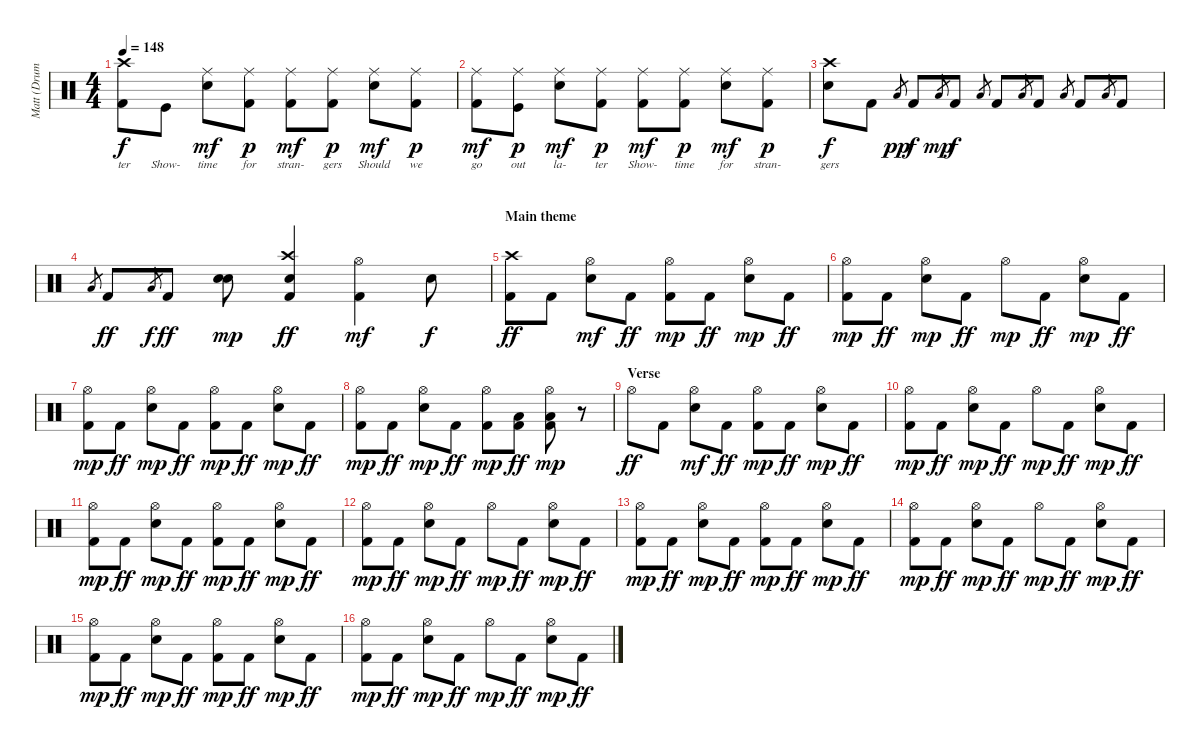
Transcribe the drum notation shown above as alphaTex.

\track ("Matt (Drums)" "Matt (Drum") {instrument percussion}
\staff {score}
\articulation defaults
\ts (4 4)
\tempo 148
\clef neutral
\ks c
("Kick (hit) 2" "Crash high (hit)").8{lyrics (0 "ter") lyrics (1 "") lyrics (2 "") lyrics (3 "") lyrics (4 "") dy f} "Kick (hit)".8{lyrics (0 "Show-") lyrics (1 "") lyrics (2 "") lyrics (3 "") lyrics (4 "")} ("Electric Snare (hit)" "Ride (middle)").8{lyrics (0 "time") lyrics (1 "") lyrics (2 "") lyrics (3 "") lyrics (4 "") dy mf} ("Kick (hit) 2" "Ride (middle)").8{lyrics (0 "for") lyrics (1 "") lyrics (2 "") lyrics (3 "") lyrics (4 "") dy p} ("Kick (hit) 2" "Ride (middle)").8{lyrics (0 "stran-") lyrics (1 "") lyrics (2 "") lyrics (3 "") lyrics (4 "") dy mf} ("Kick (hit) 2" "Ride (middle)").8{lyrics (0 "gers") lyrics (1 "") lyrics (2 "") lyrics (3 "") lyrics (4 "") dy p} ("Electric Snare (hit)" "Ride (middle)").8{lyrics (0 "Should") lyrics (1 "") lyrics (2 "") lyrics (3 "") lyrics (4 "") dy mf} ("Kick (hit) 2" "Ride (middle)").8{lyrics (0 "we") lyrics (1 "") lyrics (2 "") lyrics (3 "") lyrics (4 "") dy p} |
("Kick (hit) 2" "Ride (middle)").8{lyrics (0 "go") lyrics (1 "") lyrics (2 "") lyrics (3 "") lyrics (4 "") dy mf} ("Kick (hit)" "Ride (middle)").8{lyrics (0 "out") lyrics (1 "") lyrics (2 "") lyrics (3 "") lyrics (4 "") dy p} ("Electric Snare (hit)" "Ride (middle)").8{lyrics (0 "la-") lyrics (1 "") lyrics (2 "") lyrics (3 "") lyrics (4 "") dy mf} ("Kick (hit) 2" "Ride (middle)").8{lyrics (0 "ter") lyrics (1 "") lyrics (2 "") lyrics (3 "") lyrics (4 "") dy p} ("Kick (hit) 2" "Ride (middle)").8{lyrics (0 "Show-") lyrics (1 "") lyrics (2 "") lyrics (3 "") lyrics (4 "") dy mf} ("Kick (hit) 2" "Ride (middle)").8{lyrics (0 "time") lyrics (1 "") lyrics (2 "") lyrics (3 "") lyrics (4 "") dy p} ("Electric Snare (hit)" "Ride (middle)").8{lyrics (0 "for") lyrics (1 "") lyrics (2 "") lyrics (3 "") lyrics (4 "") dy mf} ("Kick (hit) 2" "Ride (middle)").8{lyrics (0 "stran-") lyrics (1 "") lyrics (2 "") lyrics (3 "") lyrics (4 "") dy p} |
("Electric Snare (hit)" "Crash high (hit)").8{lyrics (0 "gers") lyrics (1 "") lyrics (2 "") lyrics (3 "") lyrics (4 "") dy f} "Kick (hit) 2".8 "Low Tom (hit)".8{gr dy pp} "Kick (hit) 2".8{dy f} "Low Tom (hit)".8{gr dy mp} "Kick (hit) 2".8{dy f} "Low Tom (hit)".8{gr} "Kick (hit) 2".8 "Low Tom (hit)".8{gr} "Kick (hit) 2".8 "Low Tom (hit)".8{gr} "Kick (hit) 2".8 "Low Tom (hit)".8{gr} "Kick (hit) 2".8 |
"Low Tom (hit)".8{gr} "Kick (hit) 2".8{dy ff} "Low Tom (hit)".8{gr dy f} "Kick (hit) 2".8{dy ff} ("Electric Snare (hit)" "Hand Clap (hit)").8{dy mp} ("Snare (hit) 2" "Kick (hit) 2" "Crash high (hit)").4{dy ff} ("Kick (hit) 2" "Hi-Hat (open)").4{dy mf} "Electric Snare (hit)".8{dy f} |
\section ("" "Main theme")
("Kick (hit) 2" "Crash high (hit)").8{dy ff} "Kick (hit) 2".8 ("Electric Snare (hit)" "Hi-Hat (open)").8{dy mf} "Kick (hit) 2".8{dy ff} ("Kick (hit) 2" "Hi-Hat (open)").8{dy mp} "Kick (hit) 2".8{dy ff} ("Electric Snare (hit)" "Hi-Hat (open)").8{dy mp} "Kick (hit) 2".8{dy ff} |
("Kick (hit) 2" "Hi-Hat (open)").8{dy mp} "Kick (hit) 2".8{dy ff} ("Electric Snare (hit)" "Hi-Hat (open)").8{dy mp} "Kick (hit) 2".8{dy ff} "Hi-Hat (open)".8{dy mp} "Kick (hit) 2".8{dy ff} ("Electric Snare (hit)" "Hi-Hat (open)").8{dy mp} "Kick (hit) 2".8{dy ff} |
("Kick (hit) 2" "Hi-Hat (open)").8{dy mp} "Kick (hit) 2".8{dy ff} ("Electric Snare (hit)" "Hi-Hat (open)").8{dy mp} "Kick (hit) 2".8{dy ff} ("Kick (hit) 2" "Hi-Hat (open)").8{dy mp} "Kick (hit) 2".8{dy ff} ("Electric Snare (hit)" "Hi-Hat (open)").8{dy mp} "Kick (hit) 2".8{dy ff} |
("Kick (hit) 2" "Hi-Hat (open)").8{dy mp} "Kick (hit) 2".8{dy ff} ("Electric Snare (hit)" "Hi-Hat (open)").8{dy mp} "Kick (hit) 2".8{dy ff} ("Kick (hit) 2" "Hi-Hat (open)").8{dy mp} ("Low Tom (hit)" "Kick (hit) 2").8{dy ff} ("Low Tom (hit)" "Kick (hit) 2" "Hi-Hat (open)").8{dy mp} r.8 |
\section ("" "Verse")
"Hi-Hat (open)".8{dy ff} "Kick (hit) 2".8 ("Electric Snare (hit)" "Hi-Hat (open)").8{dy mf} "Kick (hit) 2".8{dy ff} ("Kick (hit) 2" "Hi-Hat (open)").8{dy mp} "Kick (hit) 2".8{dy ff} ("Electric Snare (hit)" "Hi-Hat (open)").8{dy mp} "Kick (hit) 2".8{dy ff} |
("Kick (hit) 2" "Hi-Hat (open)").8{dy mp} "Kick (hit) 2".8{dy ff} ("Electric Snare (hit)" "Hi-Hat (open)").8{dy mp} "Kick (hit) 2".8{dy ff} "Hi-Hat (open)".8{dy mp} "Kick (hit) 2".8{dy ff} ("Electric Snare (hit)" "Hi-Hat (open)").8{dy mp} "Kick (hit) 2".8{dy ff} |
("Kick (hit) 2" "Hi-Hat (open)").8{dy mp} "Kick (hit) 2".8{dy ff} ("Electric Snare (hit)" "Hi-Hat (open)").8{dy mp} "Kick (hit) 2".8{dy ff} ("Kick (hit) 2" "Hi-Hat (open)").8{dy mp} "Kick (hit) 2".8{dy ff} ("Electric Snare (hit)" "Hi-Hat (open)").8{dy mp} "Kick (hit) 2".8{dy ff} |
("Kick (hit) 2" "Hi-Hat (open)").8{dy mp} "Kick (hit) 2".8{dy ff} ("Electric Snare (hit)" "Hi-Hat (open)").8{dy mp} "Kick (hit) 2".8{dy ff} "Hi-Hat (open)".8{dy mp} "Kick (hit) 2".8{dy ff} ("Electric Snare (hit)" "Hi-Hat (open)").8{dy mp} "Kick (hit) 2".8{dy ff} |
("Kick (hit) 2" "Hi-Hat (open)").8{dy mp} "Kick (hit) 2".8{dy ff} ("Electric Snare (hit)" "Hi-Hat (open)").8{dy mp} "Kick (hit) 2".8{dy ff} ("Kick (hit) 2" "Hi-Hat (open)").8{dy mp} "Kick (hit) 2".8{dy ff} ("Electric Snare (hit)" "Hi-Hat (open)").8{dy mp} "Kick (hit) 2".8{dy ff} |
("Kick (hit) 2" "Hi-Hat (open)").8{dy mp} "Kick (hit) 2".8{dy ff} ("Electric Snare (hit)" "Hi-Hat (open)").8{dy mp} "Kick (hit) 2".8{dy ff} "Hi-Hat (open)".8{dy mp} "Kick (hit) 2".8{dy ff} ("Electric Snare (hit)" "Hi-Hat (open)").8{dy mp} "Kick (hit) 2".8{dy ff} |
("Kick (hit) 2" "Hi-Hat (open)").8{dy mp} "Kick (hit) 2".8{dy ff} ("Electric Snare (hit)" "Hi-Hat (open)").8{dy mp} "Kick (hit) 2".8{dy ff} ("Kick (hit) 2" "Hi-Hat (open)").8{dy mp} "Kick (hit) 2".8{dy ff} ("Electric Snare (hit)" "Hi-Hat (open)").8{dy mp} "Kick (hit) 2".8{dy ff} |
("Kick (hit) 2" "Hi-Hat (open)").8{dy mp} "Kick (hit) 2".8{dy ff} ("Electric Snare (hit)" "Hi-Hat (open)").8{dy mp} "Kick (hit) 2".8{dy ff} "Hi-Hat (open)".8{dy mp} "Kick (hit) 2".8{dy ff} ("Electric Snare (hit)" "Hi-Hat (open)").8{dy mp} "Kick (hit) 2".8{dy ff}
